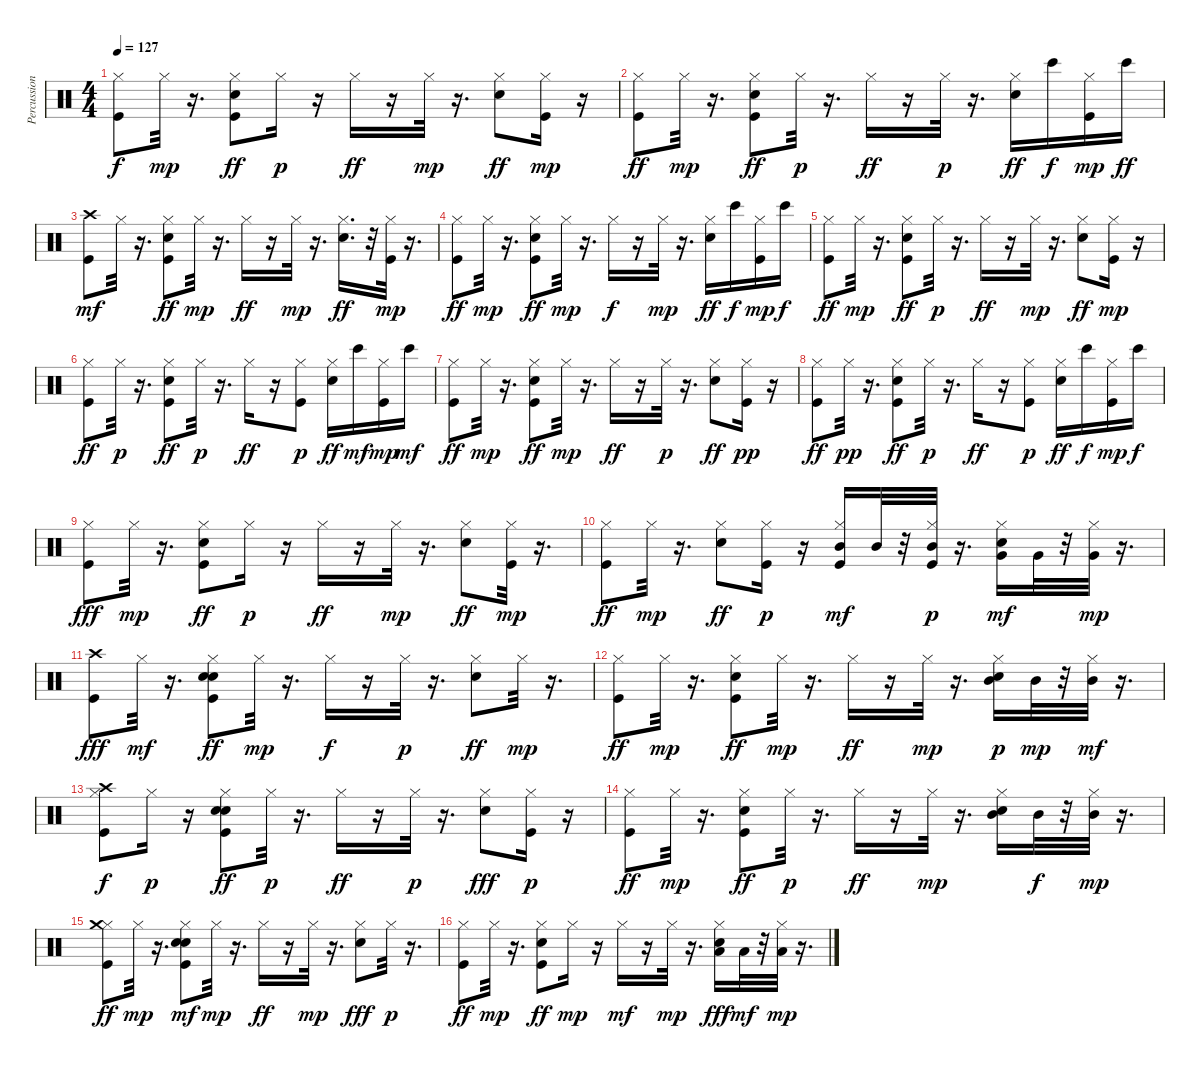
\track ("Percussions (drums + hihats)" "Percussion") {instrument percussion}
\staff {score}
\articulation defaults
\ts (4 4)
\tempo 127
\clef neutral
\ks c
("Kick (hit)" "Hi-Hat (closed)").8{dy f} "Hi-Hat (closed)".32{dy mp} r.16{d} ("Kick (hit)" "Snare (hit) 2" "Hi-Hat (closed)").8{dy ff} "Hi-Hat (closed)".16{dy p} r.16 "Hi-Hat (closed)".16{dy ff} r.16 "Hi-Hat (closed)".32{dy mp} r.16{d} ("Snare (hit) 2" "Hi-Hat (closed)").8{dy ff} ("Kick (hit)" "Hi-Hat (closed)").16{dy mp} r.16 |
("Kick (hit)" "Hi-Hat (closed)").8{dy ff} "Hi-Hat (closed)".32{dy mp} r.16{d} ("Kick (hit)" "Snare (hit) 2" "Hi-Hat (closed)").8{dy ff} "Hi-Hat (closed)".32{dy p} r.16{d} "Hi-Hat (closed)".16{dy ff} r.16 "Hi-Hat (closed)".32{dy p} r.16{d} ("Snare (hit) 2" "Hi-Hat (closed)").16{dy ff} "Bongo High (hit)".16{dy f} ("Kick (hit)" "Hi-Hat (closed)").16{dy mp} "Bongo High (hit)".16{dy ff} |
("Kick (hit)" "Crash high (hit)").8{dy mf} "Hi-Hat (closed)".32 r.16{d} ("Kick (hit)" "Snare (hit) 2" "Hi-Hat (closed)").8{dy ff} "Hi-Hat (closed)".32{dy mp} r.16{d} "Hi-Hat (closed)".16{dy ff} r.16 "Hi-Hat (closed)".32{dy mp} r.16{d} ("Snare (hit) 2" "Hi-Hat (closed)").16{d dy ff} r.32 ("Kick (hit)" "Hi-Hat (closed)").32{dy mp} r.16{d} |
("Kick (hit)" "Hi-Hat (closed)").8{dy ff} "Hi-Hat (closed)".32{dy mp} r.16{d} ("Kick (hit)" "Snare (hit) 2" "Hi-Hat (closed)").8{dy ff} "Hi-Hat (closed)".32{dy mp} r.16{d} "Hi-Hat (closed)".16{dy f} r.16 "Hi-Hat (closed)".32{dy mp} r.16{d} ("Snare (hit) 2" "Hi-Hat (closed)").16{dy ff} "Bongo High (hit)".16{dy f} ("Kick (hit)" "Hi-Hat (closed)").16{dy mp} "Bongo High (hit)".16{dy f} |
("Kick (hit)" "Hi-Hat (closed)").8{dy ff} "Hi-Hat (closed)".32{dy mp} r.16{d} ("Kick (hit)" "Snare (hit) 2" "Hi-Hat (closed)").8{dy ff} "Hi-Hat (closed)".32{dy p} r.16{d} "Hi-Hat (closed)".16{dy ff} r.16 "Hi-Hat (closed)".32{dy mp} r.16{d} ("Snare (hit) 2" "Hi-Hat (closed)").8{dy ff} ("Kick (hit)" "Hi-Hat (closed)").16{dy mp} r.16 |
("Kick (hit)" "Hi-Hat (closed)").8{dy ff} "Hi-Hat (closed)".32{dy p} r.16{d} ("Kick (hit)" "Snare (hit) 2" "Hi-Hat (closed)").8{dy ff} "Hi-Hat (closed)".32{dy p} r.16{d} "Hi-Hat (closed)".16{dy ff} r.16 ("Kick (hit)" "Hi-Hat (closed)").8{dy p} ("Snare (hit) 2" "Hi-Hat (closed)").16{dy ff} "Bongo High (hit)".16{dy mf} ("Kick (hit)" "Hi-Hat (closed)").16{dy mp} "Bongo High (hit)".16{dy mf} |
("Kick (hit)" "Hi-Hat (closed)").8{dy ff} "Hi-Hat (closed)".32{dy mp} r.16{d} ("Kick (hit)" "Snare (hit) 2" "Hi-Hat (closed)").8{dy ff} "Hi-Hat (closed)".32{dy mp} r.16{d} "Hi-Hat (closed)".16{dy ff} r.16 "Hi-Hat (closed)".32{dy p} r.16{d} ("Snare (hit) 2" "Hi-Hat (closed)").8{dy ff} ("Kick (hit)" "Hi-Hat (closed)").16{dy pp} r.16 |
("Kick (hit)" "Hi-Hat (closed)").8{dy ff} "Hi-Hat (closed)".32{dy pp} r.16{d} ("Kick (hit)" "Snare (hit) 2" "Hi-Hat (closed)").8{dy ff} "Hi-Hat (closed)".32{dy p} r.16{d} "Hi-Hat (closed)".16{dy ff} r.16 ("Kick (hit)" "Hi-Hat (closed)").8{dy p} ("Snare (hit) 2" "Hi-Hat (closed)").16{dy ff} "Bongo High (hit)".16{dy f} ("Kick (hit)" "Hi-Hat (closed)").16{dy mp} "Bongo High (hit)".16{dy f} |
("Kick (hit)" "Hi-Hat (closed)").8{dy fff} "Hi-Hat (closed)".32{dy mp} r.16{d} ("Kick (hit)" "Snare (hit) 2" "Hi-Hat (closed)").8{dy ff} "Hi-Hat (closed)".16{dy p} r.16 "Hi-Hat (closed)".16{dy ff} r.16 "Hi-Hat (closed)".32{dy mp} r.16{d} ("Snare (hit) 2" "Hi-Hat (closed)").8{dy ff} ("Kick (hit)" "Hi-Hat (closed)").32{dy mp} r.16{d} |
("Kick (hit)" "Hi-Hat (closed)").8{dy ff} "Hi-Hat (closed)".32{dy mp} r.16{d} ("Snare (hit) 2" "Hi-Hat (closed)").8{dy ff} ("Kick (hit)" "Hi-Hat (closed)").16{dy p} r.16 ("Kick (hit)" "Hi-Hat (closed)" "Mid Tom (hit)").16{dy mf} "Mid Tom (hit)".32 r.32 ("Kick (hit)" "Hi-Hat (closed)" "Mid Tom (hit)").32{dy p} r.16{d} ("Snare (hit) 2" "Hi-Hat (closed)" "Very Low Tom (hit)").16{dy mf} "Very Low Tom (hit)".32 r.32 ("Hi-Hat (closed)" "Very Low Tom (hit)").32{dy mp} r.16{d} |
("Kick (hit)" "Crash high (hit)").8{dy fff} "Hi-Hat (closed)".32{dy mf} r.16{d} ("Kick (hit)" "Snare (hit) 2" "Electric Snare (hit)" "Hi-Hat (closed)").8{dy ff} "Hi-Hat (closed)".32{dy mp} r.16{d} "Hi-Hat (closed)".16{dy f} r.16 "Hi-Hat (closed)".32{dy p} r.16{d} ("Snare (hit) 2" "Hi-Hat (closed)").8{dy ff} "Hi-Hat (closed)".32{dy mp} r.16{d} |
("Kick (hit)" "Hi-Hat (closed)").8{dy ff} "Hi-Hat (closed)".32{dy mp} r.16{d} ("Kick (hit)" "Snare (hit) 2" "Hi-Hat (closed)").8{dy ff} "Hi-Hat (closed)".32{dy mp} r.16{d} "Hi-Hat (closed)".16{dy ff} r.16 "Hi-Hat (closed)".32{dy mp} r.16{d} ("Snare (hit) 2" "Hi-Hat (closed)" "Mid Tom (hit)").16{dy p} "Mid Tom (hit)".32{dy mp} r.32 ("Hi-Hat (closed)" "Mid Tom (hit)").32{dy mf} r.16{d} |
("Kick (hit)" "Hi-Hat (closed)" "Crash high (hit)").8{dy f} "Hi-Hat (closed)".16{dy p} r.16 ("Kick (hit)" "Snare (hit) 2" "Electric Snare (hit)" "Hi-Hat (closed)").8{dy ff} "Hi-Hat (closed)".32{dy p} r.16{d} "Hi-Hat (closed)".16{dy ff} r.16 "Hi-Hat (closed)".32{dy p} r.16{d} ("Snare (hit) 2" "Hi-Hat (closed)").8{dy fff} ("Kick (hit)" "Hi-Hat (closed)").16{dy p} r.16 |
("Kick (hit)" "Hi-Hat (closed)").8{dy ff} "Hi-Hat (closed)".32{dy mp} r.16{d} ("Kick (hit)" "Snare (hit) 2" "Hi-Hat (closed)").8{dy ff} "Hi-Hat (closed)".32{dy p} r.16{d} "Hi-Hat (closed)".16{dy ff} r.16 "Hi-Hat (closed)".32{dy mp} r.16{d} ("Snare (hit) 2" "Hi-Hat (closed)" "Mid Tom (hit)").16 "Mid Tom (hit)".32{dy f} r.32 ("Hi-Hat (closed)" "Mid Tom (hit)").32{dy mp} r.16{d} |
("Kick (hit)" "Hi-Hat (closed)" "Crash medium (hit)").8{dy ff} "Hi-Hat (closed)".32{dy mp} r.16{d} ("Kick (hit)" "Snare (hit) 2" "Electric Snare (hit)" "Hi-Hat (closed)").8{dy mf} "Hi-Hat (closed)".32{dy mp} r.16{d} "Hi-Hat (closed)".16{dy ff} r.16 "Hi-Hat (closed)".32{dy mp} r.16{d} ("Snare (hit) 2" "Hi-Hat (closed)").8{dy fff} "Hi-Hat (closed)".32{dy p} r.16{d} |
("Kick (hit)" "Hi-Hat (closed)").8{dy ff} "Hi-Hat (closed)".32{dy mp} r.16{d} ("Kick (hit)" "Snare (hit) 2" "Hi-Hat (closed)").8{dy ff} "Hi-Hat (closed)".16{dy mp} r.16 "Hi-Hat (closed)".16{dy mf} r.16 "Hi-Hat (closed)".32{dy mp} r.16{d} ("Snare (hit) 2" "Hi-Hat (closed)" "Low Tom (hit)").16{dy fff} "Low Tom (hit)".32{dy mf} r.32 ("Hi-Hat (closed)" "Low Tom (hit)").32{dy mp} r.16{d}
